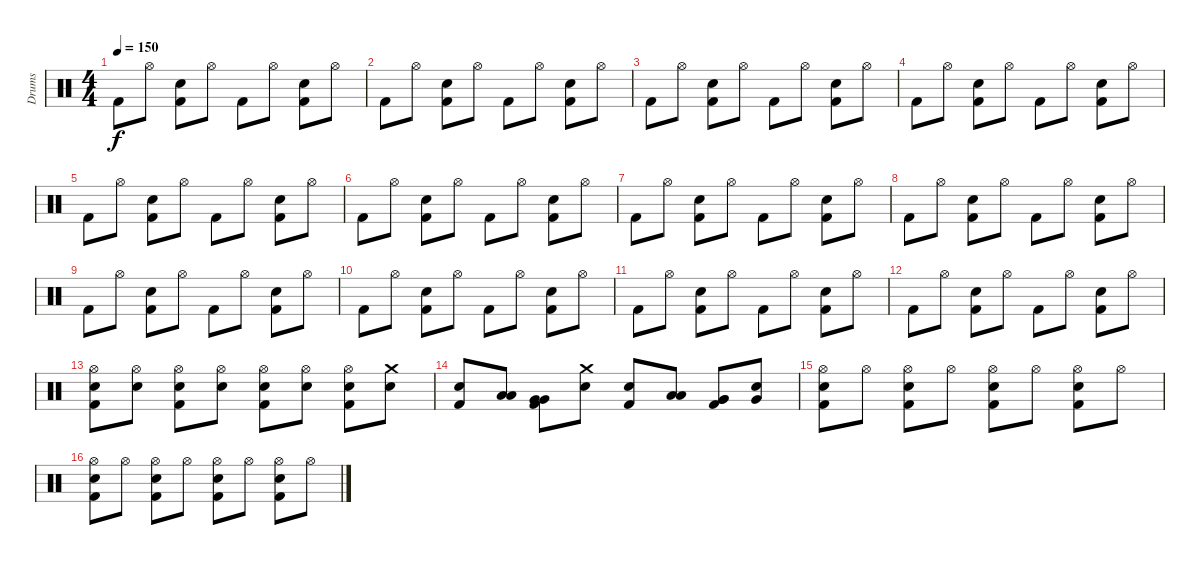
\track ("Drums" "Drums") {instrument percussion}
\staff {score}
\articulation defaults
\ts (4 4)
\tempo 150
\clef neutral
\ks c "Kick (hit) 2".8{dy f} "Hi-Hat (open)".8
("Snare (hit) 2" "Kick (hit) 2").8 "Hi-Hat (open)".8 "Kick (hit) 2".8 "Hi-Hat (open)".8 ("Snare (hit) 2" "Kick (hit) 2").8 "Hi-Hat (open)".8 |
"Kick (hit) 2".8 "Hi-Hat (open)".8 ("Snare (hit) 2" "Kick (hit) 2").8 "Hi-Hat (open)".8 "Kick (hit) 2".8 "Hi-Hat (open)".8 ("Snare (hit) 2" "Kick (hit) 2").8 "Hi-Hat (open)".8 |
"Kick (hit) 2".8 "Hi-Hat (open)".8 ("Snare (hit) 2" "Kick (hit) 2").8 "Hi-Hat (open)".8 "Kick (hit) 2".8 "Hi-Hat (open)".8 ("Snare (hit) 2" "Kick (hit) 2").8 "Hi-Hat (open)".8 |
"Kick (hit) 2".8 "Hi-Hat (open)".8 ("Snare (hit) 2" "Kick (hit) 2").8 "Hi-Hat (open)".8 "Kick (hit) 2".8 "Hi-Hat (open)".8 ("Snare (hit) 2" "Kick (hit) 2").8 "Hi-Hat (open)".8 |
"Kick (hit) 2".8 "Hi-Hat (open)".8 ("Snare (hit) 2" "Kick (hit) 2").8 "Hi-Hat (open)".8 "Kick (hit) 2".8 "Hi-Hat (open)".8 ("Snare (hit) 2" "Kick (hit) 2").8 "Hi-Hat (open)".8 |
"Kick (hit) 2".8 "Hi-Hat (open)".8 ("Snare (hit) 2" "Kick (hit) 2").8 "Hi-Hat (open)".8 "Kick (hit) 2".8 "Hi-Hat (open)".8 ("Snare (hit) 2" "Kick (hit) 2").8 "Hi-Hat (open)".8 |
"Kick (hit) 2".8 "Hi-Hat (open)".8 ("Snare (hit) 2" "Kick (hit) 2").8 "Hi-Hat (open)".8 "Kick (hit) 2".8 "Hi-Hat (open)".8 ("Snare (hit) 2" "Kick (hit) 2").8 "Hi-Hat (open)".8 |
"Kick (hit) 2".8 "Hi-Hat (open)".8 ("Snare (hit) 2" "Kick (hit) 2").8 "Hi-Hat (open)".8 "Kick (hit) 2".8 "Hi-Hat (open)".8 ("Snare (hit) 2" "Kick (hit) 2").8 "Hi-Hat (open)".8 |
"Kick (hit) 2".8 "Hi-Hat (open)".8 ("Snare (hit) 2" "Kick (hit) 2").8 "Hi-Hat (open)".8 "Kick (hit) 2".8 "Hi-Hat (open)".8 ("Snare (hit) 2" "Kick (hit) 2").8 "Hi-Hat (open)".8 |
"Kick (hit) 2".8 "Hi-Hat (open)".8 ("Snare (hit) 2" "Kick (hit) 2").8 "Hi-Hat (open)".8 "Kick (hit) 2".8 "Hi-Hat (open)".8 ("Snare (hit) 2" "Kick (hit) 2").8 "Hi-Hat (open)".8 |
"Kick (hit) 2".8 "Hi-Hat (open)".8 ("Snare (hit) 2" "Kick (hit) 2").8 "Hi-Hat (open)".8 "Kick (hit) 2".8 "Hi-Hat (open)".8 ("Snare (hit) 2" "Kick (hit) 2").8 "Hi-Hat (open)".8 |
"Kick (hit) 2".8 "Hi-Hat (open)".8 ("Snare (hit) 2" "Kick (hit) 2").8 "Hi-Hat (open)".8 "Kick (hit) 2".8 "Hi-Hat (open)".8 ("Snare (hit) 2" "Kick (hit) 2").8 "Hi-Hat (open)".8 |
("Hi-Hat (open)" "Snare (hit) 2" "Kick (hit) 2").8 ("Hi-Hat (open)" "Snare (hit) 2").8 ("Hi-Hat (open)" "Snare (hit) 2" "Kick (hit) 2").8 ("Hi-Hat (open)" "Snare (hit) 2").8 ("Hi-Hat (open)" "Snare (hit) 2" "Kick (hit) 2").8 ("Hi-Hat (open)" "Snare (hit) 2").8 ("Hi-Hat (open)" "Snare (hit) 2" "Kick (hit) 2").8 ("Crash medium (hit)" "Snare (hit) 2").8 |
("Snare (hit) 2" "Kick (hit) 2").8 ("Low Tom (hit)" "Low Tom (hit)").8 ("Very Low Tom (hit)" "Very Low Tom (hit)" "Kick (hit) 2").8 ("Crash medium (hit)" "Snare (hit) 2").8 ("Snare (hit) 2" "Kick (hit) 2").8 ("Low Tom (hit)" "Low Tom (hit)").8 ("Very Low Tom (hit)" "Very Low Tom (hit)" "Kick (hit) 2").8 ("Very Low Tom (hit)" "Snare (hit) 2").8 |
("Hi-Hat (open)" "Snare (hit) 2" "Kick (hit) 2").8 "Hi-Hat (open)".8 ("Hi-Hat (open)" "Snare (hit) 2" "Kick (hit) 2").8 "Hi-Hat (open)".8 ("Hi-Hat (open)" "Snare (hit) 2" "Kick (hit) 2").8 "Hi-Hat (open)".8 ("Hi-Hat (open)" "Snare (hit) 2" "Kick (hit) 2").8 "Hi-Hat (open)".8 |
("Hi-Hat (open)" "Snare (hit) 2" "Kick (hit) 2").8 "Hi-Hat (open)".8 ("Hi-Hat (open)" "Snare (hit) 2" "Kick (hit) 2").8 "Hi-Hat (open)".8 ("Hi-Hat (open)" "Snare (hit) 2" "Kick (hit) 2").8 "Hi-Hat (open)".8 ("Hi-Hat (open)" "Snare (hit) 2" "Kick (hit) 2").8 "Hi-Hat (open)".8
